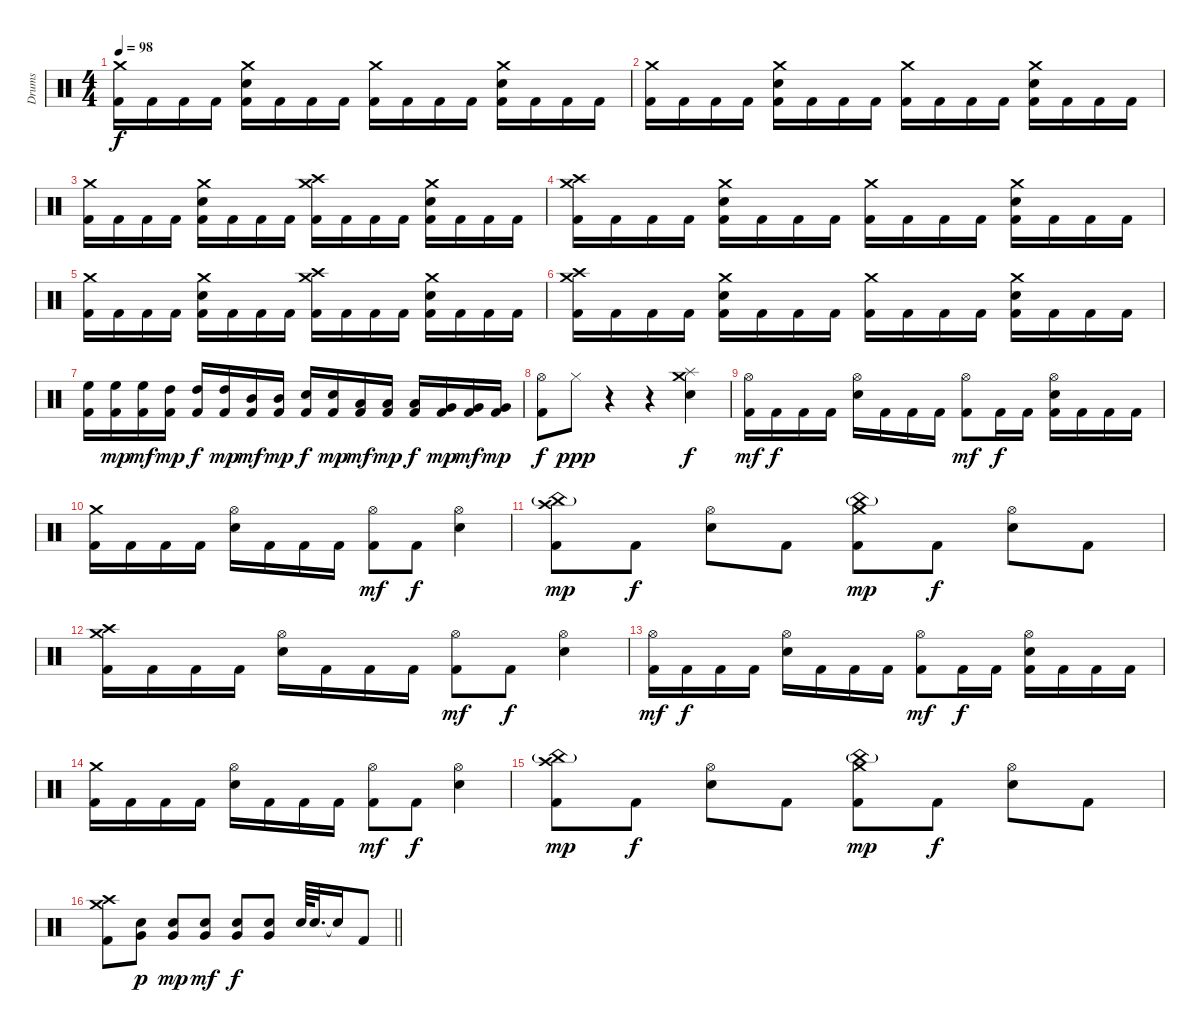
\track ("Drums" "Drums") {instrument percussion}
\staff {score}
\articulation defaults
\ts (4 4)
\tempo 98
\clef neutral
\ks c
("Crash medium (hit)" "Kick (hit) 2").16{dy f} "Kick (hit) 2".16 "Kick (hit) 2".16 "Kick (hit) 2".16 ("Crash medium (hit)" "Electric Snare (hit)" "Kick (hit) 2").16 "Kick (hit) 2".16 "Kick (hit) 2".16 "Kick (hit) 2".16 ("Crash medium (hit)" "Kick (hit) 2").16 "Kick (hit) 2".16 "Kick (hit) 2".16 "Kick (hit) 2".16 ("Crash medium (hit)" "Electric Snare (hit)" "Kick (hit) 2").16 "Kick (hit) 2".16 "Kick (hit) 2".16 "Kick (hit) 2".16 |
("Crash medium (hit)" "Kick (hit) 2").16 "Kick (hit) 2".16 "Kick (hit) 2".16 "Kick (hit) 2".16 ("Crash medium (hit)" "Electric Snare (hit)" "Kick (hit) 2").16 "Kick (hit) 2".16 "Kick (hit) 2".16 "Kick (hit) 2".16 ("Crash medium (hit)" "Kick (hit) 2").16 "Kick (hit) 2".16 "Kick (hit) 2".16 "Kick (hit) 2".16 ("Crash medium (hit)" "Electric Snare (hit)" "Kick (hit) 2").16 "Kick (hit) 2".16 "Kick (hit) 2".16 "Kick (hit) 2".16 |
("Crash medium (hit)" "Kick (hit) 2").16 "Kick (hit) 2".16 "Kick (hit) 2".16 "Kick (hit) 2".16 ("Crash medium (hit)" "Electric Snare (hit)" "Kick (hit) 2").16 "Kick (hit) 2".16 "Kick (hit) 2".16 "Kick (hit) 2".16 ("Crash medium (hit)" "Crash high (hit)" "Kick (hit) 2").16 "Kick (hit) 2".16 "Kick (hit) 2".16 "Kick (hit) 2".16 ("Crash medium (hit)" "Electric Snare (hit)" "Kick (hit) 2").16 "Kick (hit) 2".16 "Kick (hit) 2".16 "Kick (hit) 2".16 |
("Crash medium (hit)" "Crash high (hit)" "Kick (hit) 2").16 "Kick (hit) 2".16 "Kick (hit) 2".16 "Kick (hit) 2".16 ("Crash medium (hit)" "Electric Snare (hit)" "Kick (hit) 2").16 "Kick (hit) 2".16 "Kick (hit) 2".16 "Kick (hit) 2".16 ("Crash medium (hit)" "Kick (hit) 2").16 "Kick (hit) 2".16 "Kick (hit) 2".16 "Kick (hit) 2".16 ("Crash medium (hit)" "Electric Snare (hit)" "Kick (hit) 2").16 "Kick (hit) 2".16 "Kick (hit) 2".16 "Kick (hit) 2".16 |
("Crash medium (hit)" "Kick (hit) 2").16 "Kick (hit) 2".16 "Kick (hit) 2".16 "Kick (hit) 2".16 ("Crash medium (hit)" "Electric Snare (hit)" "Kick (hit) 2").16 "Kick (hit) 2".16 "Kick (hit) 2".16 "Kick (hit) 2".16 ("Crash medium (hit)" "Crash high (hit)" "Kick (hit) 2").16 "Kick (hit) 2".16 "Kick (hit) 2".16 "Kick (hit) 2".16 ("Crash medium (hit)" "Electric Snare (hit)" "Kick (hit) 2").16 "Kick (hit) 2".16 "Kick (hit) 2".16 "Kick (hit) 2".16 |
("Crash medium (hit)" "Crash high (hit)" "Kick (hit) 2").16 "Kick (hit) 2".16 "Kick (hit) 2".16 "Kick (hit) 2".16 ("Crash medium (hit)" "Electric Snare (hit)" "Kick (hit) 2").16 "Kick (hit) 2".16 "Kick (hit) 2".16 "Kick (hit) 2".16 ("Crash medium (hit)" "Kick (hit) 2").16 "Kick (hit) 2".16 "Kick (hit) 2".16 "Kick (hit) 2".16 ("Crash medium (hit)" "Electric Snare (hit)" "Kick (hit) 2").16 "Kick (hit) 2".16 "Kick (hit) 2".16 "Kick (hit) 2".16 |
("High Floor Tom (hit)" "Kick (hit) 2").16 ("High Floor Tom (hit)" "Kick (hit) 2").16{dy mp} ("High Floor Tom (hit)" "Kick (hit) 2").16{dy mf} ("High Tom (hit)" "Kick (hit) 2").16{dy mp} ("High Tom (hit)" "Kick (hit) 2").16{dy f} ("High Tom (hit)" "Kick (hit) 2").16{dy mp} ("Mid Tom (hit)" "Kick (hit) 2").16{dy mf} ("Mid Tom (hit)" "Kick (hit) 2").16{dy mp} ("Electric Snare (hit)" "Kick (hit) 2").16{dy f} ("Electric Snare (hit)" "Kick (hit) 2").16{dy mp} ("Low Tom (hit)" "Kick (hit) 2").16{dy mf} ("Low Tom (hit)" "Kick (hit) 2").16{dy mp} ("Low Tom (hit)" "Kick (hit) 2").16{dy f} ("Very Low Tom (hit)" "Kick (hit) 2").16{dy mp} ("Very Low Tom (hit)" "Kick (hit) 2").16{dy mf} ("Very Low Tom (hit)" "Kick (hit) 2").16{dy mp} |
("Hi-Hat (open)" "Kick (hit) 2").8{dy f} "Hi-Hat (closed)".8{dy ppp} r.4 r.4 ("Crash medium (hit)" "Splash (hit)" "Electric Snare (hit)").4{dy f} |
("Hi-Hat (open)" "Kick (hit) 2").16{dy mf} "Kick (hit) 2".16{dy f} "Kick (hit) 2".16 "Kick (hit) 2".16 ("Hi-Hat (open)" "Electric Snare (hit)").16 "Kick (hit) 2".16 "Kick (hit) 2".16 "Kick (hit) 2".16 ("Hi-Hat (open)" "Kick (hit) 2").8{dy mf} "Kick (hit) 2".16{dy f} "Kick (hit) 2".16 ("Hi-Hat (open)" "Electric Snare (hit)" "Kick (hit) 2").16 "Kick (hit) 2".16 "Kick (hit) 2".16 "Kick (hit) 2".16 |
("Crash medium (hit)" "Kick (hit) 2").16 "Kick (hit) 2".16 "Kick (hit) 2".16 "Kick (hit) 2".16 ("Hi-Hat (open)" "Electric Snare (hit)").16 "Kick (hit) 2".16 "Kick (hit) 2".16 "Kick (hit) 2".16 ("Hi-Hat (open)" "Kick (hit) 2").8{dy mf} "Kick (hit) 2".8{dy f} ("Hi-Hat (open)" "Electric Snare (hit)").4 |
("Crash high (hit)" "China (hit)"{g} "Kick (hit) 2").8{dy mp} "Kick (hit) 2".8{dy f} ("Hi-Hat (open)" "Electric Snare (hit)").8 "Kick (hit) 2".8 ("Crash medium (hit)" "China (hit)"{g} "Kick (hit) 2").8{dy mp} "Kick (hit) 2".8{dy f} ("Hi-Hat (open)" "Electric Snare (hit)").8 "Kick (hit) 2".8 |
("Crash high (hit)" "Crash medium (hit)" "Kick (hit) 2").16 "Kick (hit) 2".16 "Kick (hit) 2".16 "Kick (hit) 2".16 ("Hi-Hat (open)" "Electric Snare (hit)").16 "Kick (hit) 2".16 "Kick (hit) 2".16 "Kick (hit) 2".16 ("Hi-Hat (open)" "Kick (hit) 2").8{dy mf} "Kick (hit) 2".8{dy f} ("Hi-Hat (open)" "Electric Snare (hit)").4 |
("Hi-Hat (open)" "Kick (hit) 2").16{dy mf} "Kick (hit) 2".16{dy f} "Kick (hit) 2".16 "Kick (hit) 2".16 ("Hi-Hat (open)" "Electric Snare (hit)").16 "Kick (hit) 2".16 "Kick (hit) 2".16 "Kick (hit) 2".16 ("Hi-Hat (open)" "Kick (hit) 2").8{dy mf} "Kick (hit) 2".16{dy f} "Kick (hit) 2".16 ("Hi-Hat (open)" "Electric Snare (hit)" "Kick (hit) 2").16 "Kick (hit) 2".16 "Kick (hit) 2".16 "Kick (hit) 2".16 |
("Crash medium (hit)" "Kick (hit) 2").16 "Kick (hit) 2".16 "Kick (hit) 2".16 "Kick (hit) 2".16 ("Hi-Hat (open)" "Electric Snare (hit)").16 "Kick (hit) 2".16 "Kick (hit) 2".16 "Kick (hit) 2".16 ("Hi-Hat (open)" "Kick (hit) 2").8{dy mf} "Kick (hit) 2".8{dy f} ("Hi-Hat (open)" "Electric Snare (hit)").4 |
("Crash high (hit)" "China (hit)"{g} "Kick (hit) 2").8{dy mp} "Kick (hit) 2".8{dy f} ("Hi-Hat (open)" "Electric Snare (hit)").8 "Kick (hit) 2".8 ("Crash medium (hit)" "China (hit)"{g} "Kick (hit) 2").8{dy mp} "Kick (hit) 2".8{dy f} ("Hi-Hat (open)" "Electric Snare (hit)").8 "Kick (hit) 2".8 |
\barLineRight lightlight
("Crash high (hit)" "Crash medium (hit)" "Kick (hit) 2").8 ("Very Low Tom (hit)" "Electric Snare (hit)").8{dy p} ("Very Low Tom (hit)" "Electric Snare (hit)").8{dy mp} ("Very Low Tom (hit)" "Electric Snare (hit)").8{dy mf} ("Very Low Tom (hit)" "Electric Snare (hit)").8{dy f} ("Very Low Tom (hit)" "Electric Snare (hit)").8 "Electric Snare (hit)".64 "Electric Snare (hit)".32{d} "Snare (hit)"{t}.16 "Kick (hit) 2".8
